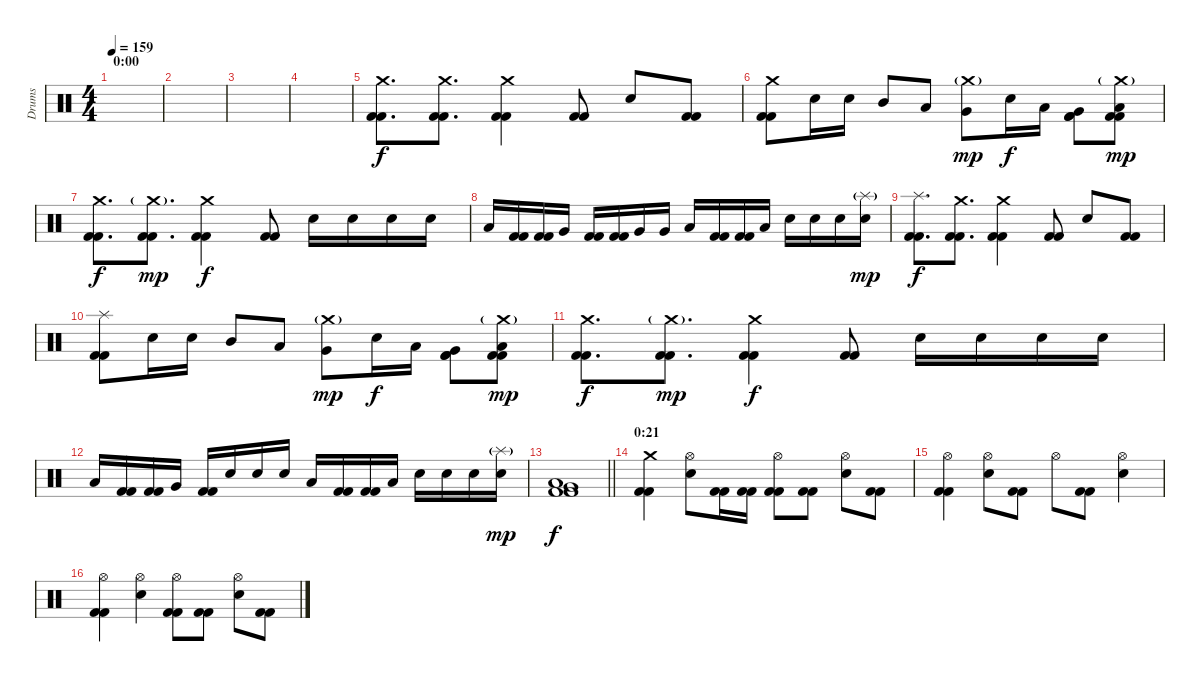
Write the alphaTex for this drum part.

\track ("Drums" "Drums") {instrument percussion}
\staff {score}
\articulation defaults
\ts (4 4)
\section ("" "0:00")
\tempo 159
\clef neutral
\ks c
|
|
|
|
("Crash medium (hit)" "Kick (hit) 2" "Kick (hit) 2").8{d} ("Crash medium (hit)" "Kick (hit) 2" "Kick (hit) 2").8{d} ("Crash medium (hit)" "Kick (hit) 2" "Kick (hit) 2").4 ("Kick (hit) 2" "Kick (hit) 2").8 "Electric Snare (hit)".8 ("Kick (hit) 2" "Kick (hit) 2").8 |
("Crash medium (hit)" "Kick (hit) 2" "Kick (hit) 2").8 "Electric Snare (hit)".16 "Electric Snare (hit)".16 "Mid Tom (hit)".8 "Low Tom (hit)".8 ("Crash medium (hit)"{g} "Very Low Tom (hit)").8{dy mp} "Electric Snare (hit)".16{dy f} "Low Tom (hit)".16 ("Very Low Tom (hit)" "Kick (hit) 2" "Kick (hit) 2").8 ("Crash medium (hit)"{g} "Low Floor Tom (hit)" "Kick (hit) 2" "Kick (hit) 2").8{dy mp} |
("Crash medium (hit)" "Kick (hit) 2" "Kick (hit) 2").8{d dy f} ("Crash medium (hit)"{g} "Kick (hit) 2" "Kick (hit) 2").8{d dy mp} ("Crash medium (hit)" "Kick (hit) 2" "Kick (hit) 2").4{dy f} ("Kick (hit) 2" "Kick (hit) 2").8 "Electric Snare (hit)".16 "Electric Snare (hit)".16 "Electric Snare (hit)".16 "Electric Snare (hit)".16 |
"Low Tom (hit)".16 ("Kick (hit) 2" "Kick (hit) 2").16 ("Kick (hit) 2" "Kick (hit) 2").16 "Very Low Tom (hit)".16 ("Kick (hit) 2" "Kick (hit) 2").16 ("Kick (hit) 2" "Kick (hit) 2").16 "Very Low Tom (hit)".16 "Very Low Tom (hit)".16 "Low Floor Tom (hit)".16 ("Kick (hit) 2" "Kick (hit) 2").16 ("Kick (hit) 2" "Kick (hit) 2").16 "Low Floor Tom (hit)".16 "Electric Snare (hit)".16 "Electric Snare (hit)".16 "Electric Snare (hit)".16 ("Splash (hit)"{g} "Electric Snare (hit)").16{dy mp} |
("Splash (hit)" "Kick (hit) 2" "Kick (hit) 2").8{d dy f} ("Crash medium (hit)" "Kick (hit) 2" "Kick (hit) 2").8{d} ("Crash medium (hit)" "Kick (hit) 2" "Kick (hit) 2").4 ("Kick (hit) 2" "Kick (hit) 2").8 "Electric Snare (hit)".8 ("Kick (hit) 2" "Kick (hit) 2").8 |
("Splash (hit)" "Kick (hit) 2" "Kick (hit) 2").8 "Electric Snare (hit)".16 "Electric Snare (hit)".16 "Mid Tom (hit)".8 "Low Tom (hit)".8 ("Crash medium (hit)"{g} "Very Low Tom (hit)").8{dy mp} "Electric Snare (hit)".16{dy f} "Low Tom (hit)".16 ("Very Low Tom (hit)" "Kick (hit) 2" "Kick (hit) 2").8 ("Crash medium (hit)"{g} "Low Floor Tom (hit)" "Kick (hit) 2" "Kick (hit) 2").8{dy mp} |
("Crash medium (hit)" "Kick (hit) 2" "Kick (hit) 2").8{d dy f} ("Crash medium (hit)"{g} "Kick (hit) 2" "Kick (hit) 2").8{d dy mp} ("Crash medium (hit)" "Kick (hit) 2" "Kick (hit) 2").4{dy f} ("Kick (hit) 2" "Kick (hit) 2").8 "Electric Snare (hit)".16 "Electric Snare (hit)".16 "Electric Snare (hit)".16 "Electric Snare (hit)".16 |
"Low Tom (hit)".16 ("Kick (hit) 2" "Kick (hit) 2").16 ("Kick (hit) 2" "Kick (hit) 2").16 "Very Low Tom (hit)".16 ("Kick (hit) 2" "Kick (hit) 2").16 "Electric Snare (hit)".16 "Electric Snare (hit)".16 "Electric Snare (hit)".16 "Low Floor Tom (hit)".16 ("Kick (hit) 2" "Kick (hit) 2").16 ("Kick (hit) 2" "Kick (hit) 2").16 "Low Floor Tom (hit)".16 "Electric Snare (hit)".16 "Electric Snare (hit)".16 "Electric Snare (hit)".16 ("Splash (hit)"{g} "Electric Snare (hit)").16{dy mp} |
\barLineRight lightlight
("Very Low Tom (hit)" "Low Floor Tom (hit)" "Kick (hit) 2" "Kick (hit) 2").1{dy f} |
\section ("" "0:21")
("Crash medium (hit)" "Kick (hit) 2" "Kick (hit) 2").4 ("Hi-Hat (open)" "Electric Snare (hit)").8 ("Kick (hit) 2" "Kick (hit) 2").16 ("Kick (hit) 2" "Kick (hit) 2").16 ("Hi-Hat (open)" "Kick (hit) 2" "Kick (hit) 2").8 ("Kick (hit) 2" "Kick (hit) 2").8 ("Hi-Hat (open)" "Electric Snare (hit)").8 ("Kick (hit) 2" "Kick (hit) 2").8 |
("Hi-Hat (open)" "Kick (hit) 2" "Kick (hit) 2").4 ("Hi-Hat (open)" "Electric Snare (hit)").8 ("Kick (hit) 2" "Kick (hit) 2").8 "Hi-Hat (open)".8 ("Kick (hit) 2" "Kick (hit) 2").8 ("Hi-Hat (open)" "Electric Snare (hit)").4 |
("Hi-Hat (open)" "Kick (hit) 2" "Kick (hit) 2").4 ("Hi-Hat (open)" "Electric Snare (hit)").4 ("Hi-Hat (open)" "Kick (hit) 2" "Kick (hit) 2").8 ("Kick (hit) 2" "Kick (hit) 2").8 ("Hi-Hat (open)" "Electric Snare (hit)").8 ("Kick (hit) 2" "Kick (hit) 2").8
